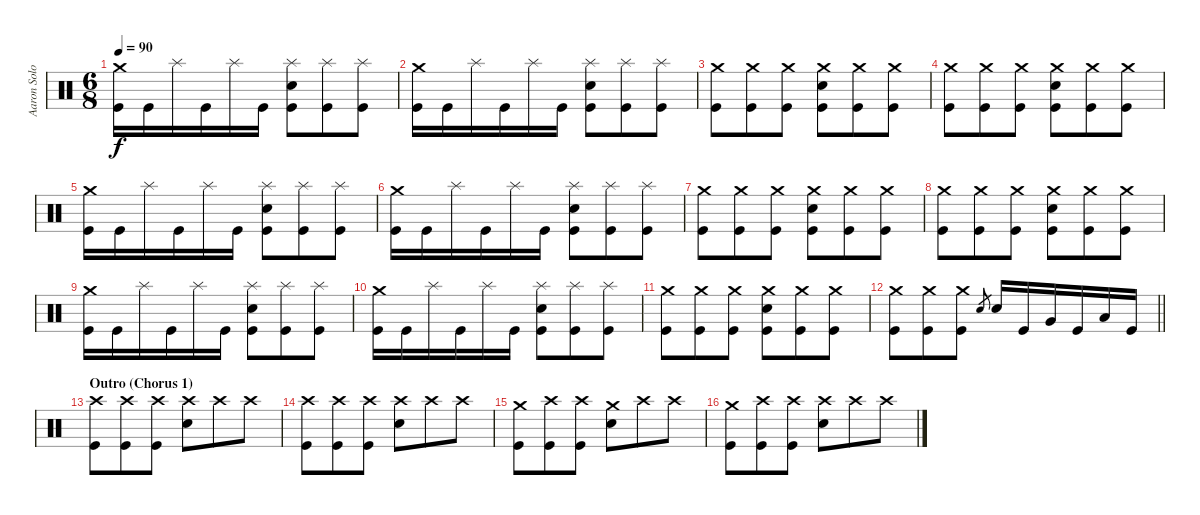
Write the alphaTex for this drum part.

\track ("Aaron Solowoniuk" "Aaron Solo") {instrument percussion}
\staff {score}
\articulation defaults
\ts (6 8)
\tempo 90
\clef neutral
\ks c
("Crash medium (hit)" "Kick (hit)").16{dy f} "Kick (hit)".16 "Splash (hit)".16 "Kick (hit)".16 "Splash (hit)".16 "Kick (hit)".16 ("Splash (hit)" "Electric Snare (hit)" "Kick (hit)").8 ("Splash (hit)" "Kick (hit)").8 ("Splash (hit)" "Kick (hit)").8 |
("Crash medium (hit)" "Kick (hit)").16 "Kick (hit)".16 "Splash (hit)".16 "Kick (hit)".16 "Splash (hit)".16 "Kick (hit)".16 ("Splash (hit)" "Electric Snare (hit)" "Kick (hit)").8 ("Splash (hit)" "Kick (hit)").8 ("Splash (hit)" "Kick (hit)").8 |
("Crash medium (hit)" "Kick (hit)").8 ("Crash medium (hit)" "Kick (hit)").8 ("Crash medium (hit)" "Kick (hit)").8 ("Crash medium (hit)" "Electric Snare (hit)" "Kick (hit)").8 ("Crash medium (hit)" "Kick (hit)").8 ("Crash medium (hit)" "Kick (hit)").8 |
("Crash medium (hit)" "Kick (hit)").8 ("Crash medium (hit)" "Kick (hit)").8 ("Crash medium (hit)" "Kick (hit)").8 ("Crash medium (hit)" "Electric Snare (hit)" "Kick (hit)").8 ("Crash medium (hit)" "Kick (hit)").8 ("Crash medium (hit)" "Kick (hit)").8 |
("Crash medium (hit)" "Kick (hit)").16 "Kick (hit)".16 "Splash (hit)".16 "Kick (hit)".16 "Splash (hit)".16 "Kick (hit)".16 ("Splash (hit)" "Electric Snare (hit)" "Kick (hit)").8 ("Splash (hit)" "Kick (hit)").8 ("Splash (hit)" "Kick (hit)").8 |
("Crash medium (hit)" "Kick (hit)").16 "Kick (hit)".16 "Splash (hit)".16 "Kick (hit)".16 "Splash (hit)".16 "Kick (hit)".16 ("Splash (hit)" "Electric Snare (hit)" "Kick (hit)").8 ("Splash (hit)" "Kick (hit)").8 ("Splash (hit)" "Kick (hit)").8 |
("Crash medium (hit)" "Kick (hit)").8 ("Crash medium (hit)" "Kick (hit)").8 ("Crash medium (hit)" "Kick (hit)").8 ("Crash medium (hit)" "Electric Snare (hit)" "Kick (hit)").8 ("Crash medium (hit)" "Kick (hit)").8 ("Crash medium (hit)" "Kick (hit)").8 |
("Crash medium (hit)" "Kick (hit)").8 ("Crash medium (hit)" "Kick (hit)").8 ("Crash medium (hit)" "Kick (hit)").8 ("Crash medium (hit)" "Electric Snare (hit)" "Kick (hit)").8 ("Crash medium (hit)" "Kick (hit)").8 ("Crash medium (hit)" "Kick (hit)").8 |
("Crash medium (hit)" "Kick (hit)").16 "Kick (hit)".16 "Splash (hit)".16 "Kick (hit)".16 "Splash (hit)".16 "Kick (hit)".16 ("Splash (hit)" "Electric Snare (hit)" "Kick (hit)").8 ("Splash (hit)" "Kick (hit)").8 ("Splash (hit)" "Kick (hit)").8 |
("Crash medium (hit)" "Kick (hit)").16 "Kick (hit)".16 "Splash (hit)".16 "Kick (hit)".16 "Splash (hit)".16 "Kick (hit)".16 ("Splash (hit)" "Electric Snare (hit)" "Kick (hit)").8 ("Splash (hit)" "Kick (hit)").8 ("Splash (hit)" "Kick (hit)").8 |
("Crash medium (hit)" "Kick (hit)").8 ("Crash medium (hit)" "Kick (hit)").8 ("Crash medium (hit)" "Kick (hit)").8 ("Crash medium (hit)" "Electric Snare (hit)" "Kick (hit)").8 ("Crash medium (hit)" "Kick (hit)").8 ("Crash medium (hit)" "Kick (hit)").8 |
\barLineRight lightlight
("Crash medium (hit)" "Kick (hit)").8 ("Crash medium (hit)" "Kick (hit)").8 ("Crash medium (hit)" "Kick (hit)").8 "Electric Snare (hit)".8{gr} "Electric Snare (hit)".16 "Kick (hit)".16 "Very Low Tom (hit)".16 "Kick (hit)".16 "Low Floor Tom (hit)".16 "Kick (hit)".16 |
\section ("" "Outro (Chorus 1)")
("Crash high (hit)" "Kick (hit)").8 ("Crash high (hit)" "Kick (hit)").8 ("Crash high (hit)" "Kick (hit)").8 ("Crash high (hit)" "Electric Snare (hit)").8 "Crash high (hit)".8 "Crash high (hit)".8 |
("Crash high (hit)" "Kick (hit)").8 ("Crash high (hit)" "Kick (hit)").8 ("Crash high (hit)" "Kick (hit)").8 ("Crash high (hit)" "Electric Snare (hit)").8 "Crash high (hit)".8 "Crash high (hit)".8 |
("Crash medium (hit)" "Kick (hit)").8 ("Crash high (hit)" "Kick (hit)").8 ("Crash high (hit)" "Kick (hit)").8 ("Crash medium (hit)" "Electric Snare (hit)").8 "Crash high (hit)".8 "Crash high (hit)".8 |
("Crash medium (hit)" "Kick (hit)").8 ("Crash high (hit)" "Kick (hit)").8 ("Crash high (hit)" "Kick (hit)").8 ("Crash high (hit)" "Electric Snare (hit)").8 "Crash high (hit)".8 "Crash high (hit)".8
